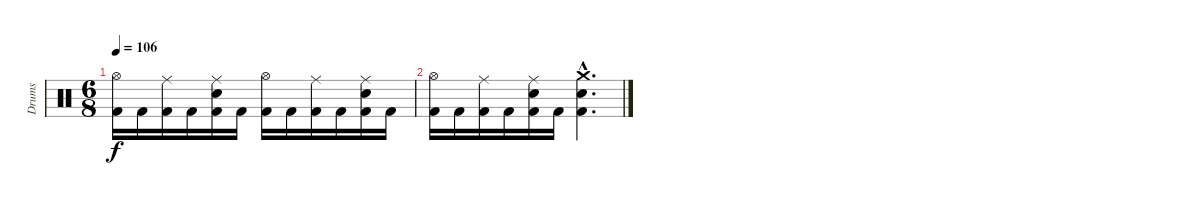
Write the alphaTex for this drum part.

\track ("Drums" "Drums") {instrument percussion}
\staff {score}
\articulation defaults
\ts (6 8)
\section ("" "")
\tempo 106
\clef neutral
\ks aminor
("Hi-Hat (open)" "Kick (hit) 2").16{dy f} "Kick (hit) 2".16 ("Ride (middle)" "Kick (hit) 2").16 "Kick (hit) 2".16 ("Ride (middle)" "Electric Snare (hit)" "Kick (hit) 2").16 "Kick (hit) 2".16 ("Hi-Hat (open)" "Kick (hit) 2").16 "Kick (hit) 2".16 ("Ride (middle)" "Kick (hit) 2").16 "Kick (hit) 2".16 ("Ride (middle)" "Electric Snare (hit)" "Kick (hit) 2").16 "Kick (hit) 2".16 |
("Hi-Hat (open)" "Kick (hit) 2").16 "Kick (hit) 2".16 ("Ride (middle)" "Kick (hit) 2").16 "Kick (hit) 2".16 ("Ride (middle)" "Electric Snare (hit)" "Kick (hit) 2").16 "Kick (hit) 2".16 ("Crash medium (hit)"{hac} "Electric Snare (hit)"{hac} "Kick (hit) 2"{hac}).4{d}
